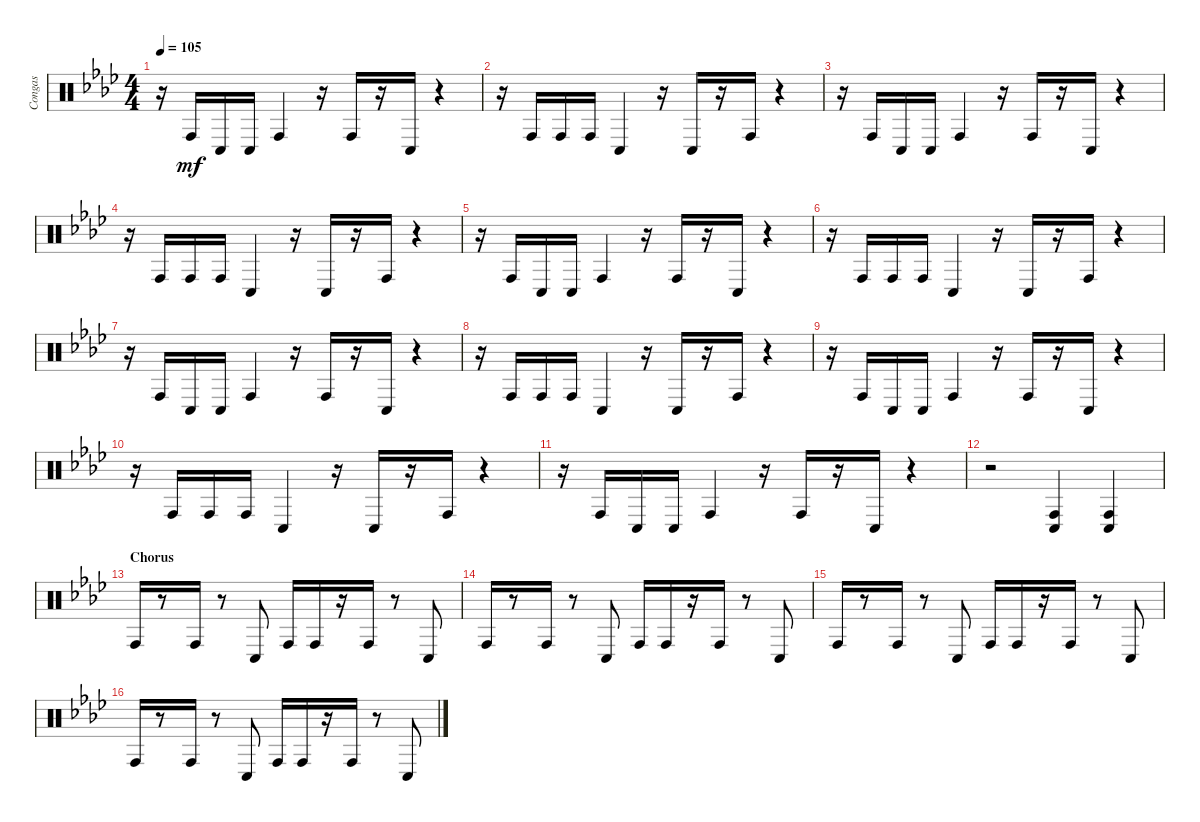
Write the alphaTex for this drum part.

\track ("Congas" "Congas") {instrument percussion}
\staff {score}
\articulation defaults
\ts (4 4)
\tempo 105
\clef neutral
\ks ab
r.16{dy mf} "Conga high (hit)".16 "Conga low (hit)".16 "Conga low (hit)".16 "Conga high (hit)".4 r.16 "Conga high (hit)".16 r.16 "Conga low (hit)".16 r.4 |
r.16 "Conga high (hit)".16 "Conga high (hit)".16 "Conga high (hit)".16 "Conga low (hit)".4 r.16 "Conga low (hit)".16 r.16 "Conga high (hit)".16 r.4 |
r.16 "Conga high (hit)".16 "Conga low (hit)".16 "Conga low (hit)".16 "Conga high (hit)".4 r.16 "Conga high (hit)".16 r.16 "Conga low (hit)".16 r.4 |
r.16 "Conga high (hit)".16 "Conga high (hit)".16 "Conga high (hit)".16 "Conga low (hit)".4 r.16 "Conga low (hit)".16 r.16 "Conga high (hit)".16 r.4 |
r.16 "Conga high (hit)".16 "Conga low (hit)".16 "Conga low (hit)".16 "Conga high (hit)".4 r.16 "Conga high (hit)".16 r.16 "Conga low (hit)".16 r.4 |
r.16 "Conga high (hit)".16 "Conga high (hit)".16 "Conga high (hit)".16 "Conga low (hit)".4 r.16 "Conga low (hit)".16 r.16 "Conga high (hit)".16 r.4 |
r.16 "Conga high (hit)".16 "Conga low (hit)".16 "Conga low (hit)".16 "Conga high (hit)".4 r.16 "Conga high (hit)".16 r.16 "Conga low (hit)".16 r.4 |
r.16 "Conga high (hit)".16 "Conga high (hit)".16 "Conga high (hit)".16 "Conga low (hit)".4 r.16 "Conga low (hit)".16 r.16 "Conga high (hit)".16 r.4 |
r.16 "Conga high (hit)".16 "Conga low (hit)".16 "Conga low (hit)".16 "Conga high (hit)".4 r.16 "Conga high (hit)".16 r.16 "Conga low (hit)".16 r.4 |
r.16 "Conga high (hit)".16 "Conga high (hit)".16 "Conga high (hit)".16 "Conga low (hit)".4 r.16 "Conga low (hit)".16 r.16 "Conga high (hit)".16 r.4 |
r.16 "Conga high (hit)".16 "Conga low (hit)".16 "Conga low (hit)".16 "Conga high (hit)".4 r.16 "Conga high (hit)".16 r.16 "Conga low (hit)".16 r.4 |
r.2 ("Conga low (hit)" "Conga high (hit)").4 ("Conga low (hit)" "Conga high (hit)").4 |
\section ("" "Chorus")
"Conga high (hit)".16 r.8 "Conga high (hit)".16 r.8 "Conga low (hit)".8 "Conga high (hit)".16 "Conga high (hit)".16 r.16 "Conga high (hit)".16 r.8 "Conga low (hit)".8 |
"Conga high (hit)".16 r.8 "Conga high (hit)".16 r.8 "Conga low (hit)".8 "Conga high (hit)".16 "Conga high (hit)".16 r.16 "Conga high (hit)".16 r.8 "Conga low (hit)".8 |
"Conga high (hit)".16 r.8 "Conga high (hit)".16 r.8 "Conga low (hit)".8 "Conga high (hit)".16 "Conga high (hit)".16 r.16 "Conga high (hit)".16 r.8 "Conga low (hit)".8 |
"Conga high (hit)".16 r.8 "Conga high (hit)".16 r.8 "Conga low (hit)".8 "Conga high (hit)".16 "Conga high (hit)".16 r.16 "Conga high (hit)".16 r.8 "Conga low (hit)".8
